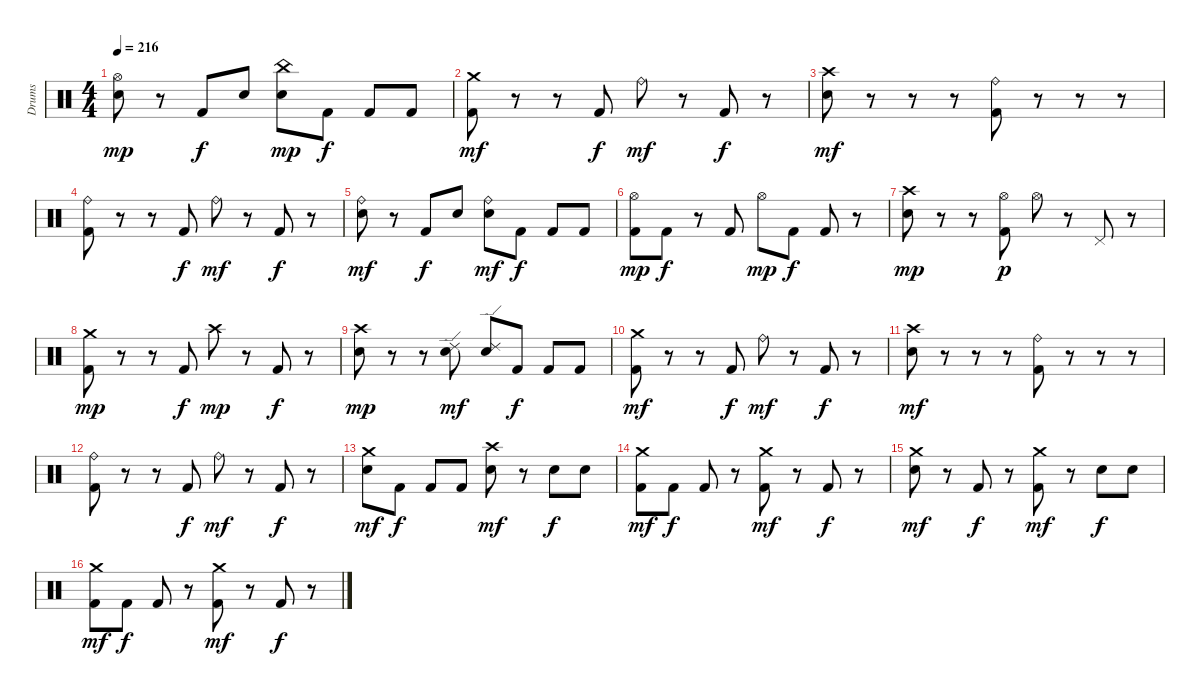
\track ("Drums" "Drums") {instrument percussion}
\staff {score}
\articulation defaults
\ts (4 4)
\tempo 216
\clef neutral
\ks c
("Snare (hit) 2" "Hi-Hat (open)").8{dy mp} r.8 "Kick (hit) 2".8{dy f} "Snare (hit) 2".8 ("Snare (hit) 2" "China (hit)").8{dy mp} "Kick (hit) 2".8{dy f} "Kick (hit) 2".8 "Kick (hit) 2".8 |
("Kick (hit) 2" "Crash medium (hit)").8{dy mf} r.8 r.8 "Kick (hit) 2".8{dy f} "Ride (bell)".8{dy mf} r.8 "Kick (hit) 2".8{dy f} r.8 |
("Snare (hit) 2" "Crash high (hit)").8{dy mf} r.8 r.8 r.8 ("Kick (hit) 2" "Ride (bell)").8 r.8 r.8 r.8 |
("Kick (hit) 2" "Ride (bell)").8 r.8 r.8 "Kick (hit) 2".8{dy f} "Ride (bell)".8{dy mf} r.8 "Kick (hit) 2".8{dy f} r.8 |
("Snare (hit) 2" "Ride (bell)").8{dy mf} r.8 "Kick (hit) 2".8{dy f} "Snare (hit) 2".8 ("Snare (hit) 2" "Ride (bell)").8{dy mf} "Kick (hit) 2".8{dy f} "Kick (hit) 2".8 "Kick (hit) 2".8 |
("Kick (hit) 2" "Hi-Hat (open)").8{dy mp} "Kick (hit) 2".8{dy f} r.8 "Kick (hit) 2".8 "Hi-Hat (open)".8{dy mp} "Kick (hit) 2".8{dy f} "Kick (hit) 2".8 r.8 |
("Snare (hit) 2" "Crash high (hit)").8{dy mp} r.8 r.8 ("Kick (hit) 2" "Hi-Hat (open)").8{dy p} "Hi-Hat (open)".8 r.8 "Pedal Hi-Hat (hit)".8 r.8 |
("Kick (hit) 2" "Crash medium (hit)").8{dy mp} r.8 r.8 "Kick (hit) 2".8{dy f} "Crash high (hit)".8{dy mp} r.8 "Kick (hit) 2".8{dy f} r.8 |
("Snare (hit) 2" "Crash high (hit)").8{dy mp} r.8 r.8 ("Snare (hit) 2" "Ride (edge) 2").8{dy mf} ("Snare (hit) 2" "Ride (edge) 2").8 "Kick (hit) 2".8{dy f} "Kick (hit) 2".8 "Kick (hit) 2".8 |
("Kick (hit) 2" "Crash medium (hit)").8{dy mf} r.8 r.8 "Kick (hit) 2".8{dy f} "Ride (bell)".8{dy mf} r.8 "Kick (hit) 2".8{dy f} r.8 |
("Snare (hit) 2" "Crash high (hit)").8{dy mf} r.8 r.8 r.8 ("Kick (hit) 2" "Ride (bell)").8 r.8 r.8 r.8 |
("Kick (hit) 2" "Ride (bell)").8 r.8 r.8 "Kick (hit) 2".8{dy f} "Ride (bell)".8{dy mf} r.8 "Kick (hit) 2".8{dy f} r.8 |
("Snare (hit) 2" "Crash medium (hit)").8{dy mf} "Kick (hit) 2".8{dy f} "Kick (hit) 2".8 "Kick (hit) 2".8 ("Snare (hit) 2" "Crash high (hit)").8{dy mf} r.8 "Snare (hit) 2".8{dy f} "Snare (hit) 2".8 |
("Kick (hit) 2" "Crash medium (hit)").8{dy mf} "Kick (hit) 2".8{dy f} "Kick (hit) 2".8 r.8 ("Kick (hit) 2" "Crash medium (hit)").8{dy mf} r.8 "Kick (hit) 2".8{dy f} r.8 |
("Snare (hit) 2" "Crash medium (hit)").8{dy mf} r.8 "Kick (hit) 2".8{dy f} r.8 ("Kick (hit) 2" "Crash medium (hit)").8{dy mf} r.8 "Snare (hit) 2".8{dy f} "Snare (hit) 2".8 |
("Kick (hit) 2" "Crash medium (hit)").8{dy mf} "Kick (hit) 2".8{dy f} "Kick (hit) 2".8 r.8 ("Kick (hit) 2" "Crash medium (hit)").8{dy mf} r.8 "Kick (hit) 2".8{dy f} r.8
